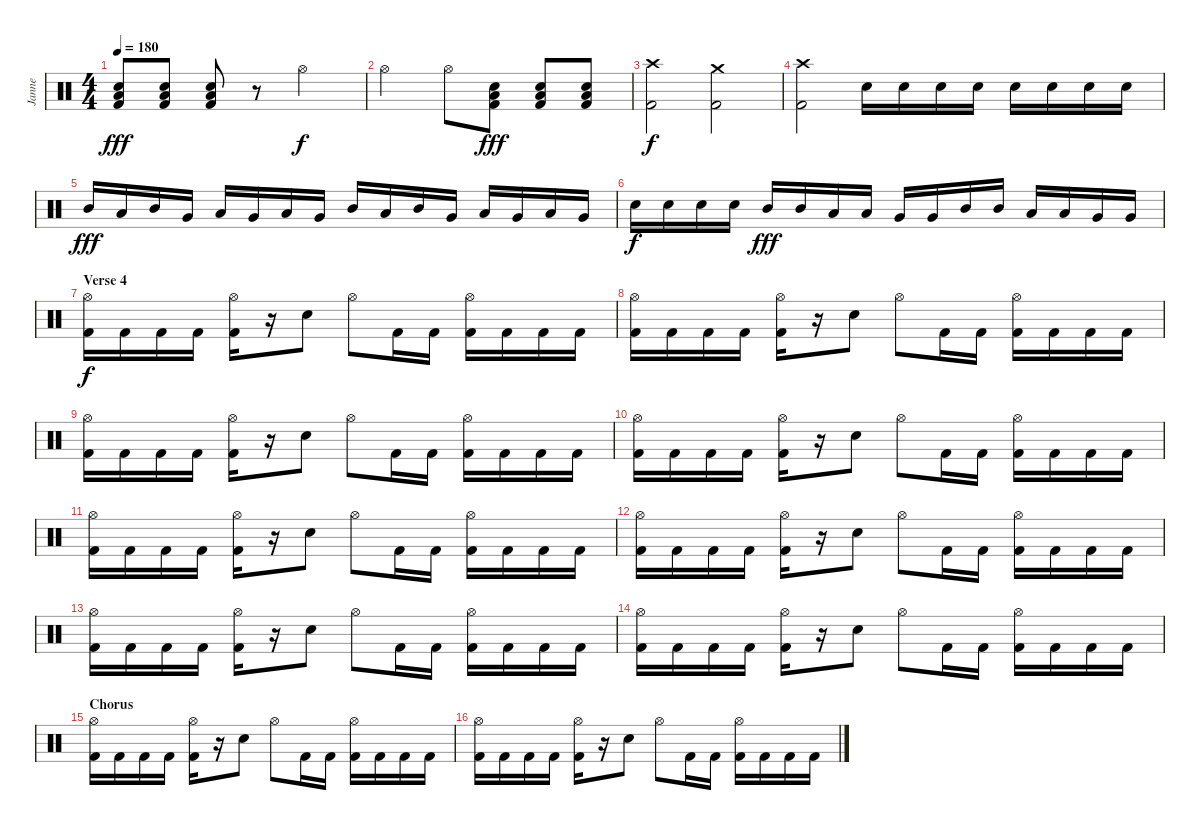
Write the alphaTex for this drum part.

\track ("Janne" "Janne") {instrument percussion}
\staff {score}
\articulation defaults
\ts (4 4)
\tempo 180
\clef neutral
\ks c
("Low Floor Tom (hit)" "Electric Snare (hit)" "Kick (hit) 2").8{dy fff} ("Low Floor Tom (hit)" "Electric Snare (hit)" "Kick (hit) 2").8 ("Low Floor Tom (hit)" "Electric Snare (hit)" "Kick (hit) 2").8 r.8 "Hi-Hat (open)".2{dy f} |
"Hi-Hat (open)".2 "Hi-Hat (open)".8 ("Low Floor Tom (hit)" "Electric Snare (hit)" "Kick (hit) 2").8{dy fff} ("Low Floor Tom (hit)" "Electric Snare (hit)" "Kick (hit) 2").8 ("Low Floor Tom (hit)" "Electric Snare (hit)" "Kick (hit) 2").8 |
("Crash high (hit)" "Kick (hit) 2").2{dy f} ("Crash medium (hit)" "Kick (hit) 2").2 |
("Crash high (hit)" "Kick (hit) 2").2 "Electric Snare (hit)".16 "Electric Snare (hit)".16 "Electric Snare (hit)".16 "Electric Snare (hit)".16 "Electric Snare (hit)".16 "Electric Snare (hit)".16 "Electric Snare (hit)".16 "Electric Snare (hit)".16 |
"Mid Tom (hit)".16{dy fff} "Low Tom (hit)".16 "Mid Tom (hit)".16 "Very Low Tom (hit)".16 "Low Tom (hit)".16 "Very Low Tom (hit)".16 "Low Tom (hit)".16 "Very Low Tom (hit)".16 "Mid Tom (hit)".16 "Low Tom (hit)".16 "Mid Tom (hit)".16 "Very Low Tom (hit)".16 "Low Tom (hit)".16 "Very Low Tom (hit)".16 "Low Tom (hit)".16 "Very Low Tom (hit)".16 |
"Electric Snare (hit)".16{dy f} "Electric Snare (hit)".16 "Electric Snare (hit)".16 "Electric Snare (hit)".16 "Mid Tom (hit)".16{dy fff} "Mid Tom (hit)".16 "Low Tom (hit)".16 "Low Tom (hit)".16 "Very Low Tom (hit)".16 "Very Low Tom (hit)".16 "Mid Tom (hit)".16 "Mid Tom (hit)".16 "Low Tom (hit)".16 "Low Tom (hit)".16 "Very Low Tom (hit)".16 "Very Low Tom (hit)".16 |
\section ("" "Verse 4")
("Hi-Hat (open)" "Kick (hit) 2").16{dy f} "Kick (hit) 2".16 "Kick (hit) 2".16 "Kick (hit) 2".16 ("Hi-Hat (open)" "Kick (hit) 2").16 r.16 "Electric Snare (hit)".8 "Hi-Hat (open)".8 "Kick (hit) 2".16 "Kick (hit) 2".16 ("Hi-Hat (open)" "Kick (hit) 2").16 "Kick (hit) 2".16 "Kick (hit) 2".16 "Kick (hit) 2".16 |
("Hi-Hat (open)" "Kick (hit) 2").16 "Kick (hit) 2".16 "Kick (hit) 2".16 "Kick (hit) 2".16 ("Hi-Hat (open)" "Kick (hit) 2").16 r.16 "Electric Snare (hit)".8 "Hi-Hat (open)".8 "Kick (hit) 2".16 "Kick (hit) 2".16 ("Hi-Hat (open)" "Kick (hit) 2").16 "Kick (hit) 2".16 "Kick (hit) 2".16 "Kick (hit) 2".16 |
("Hi-Hat (open)" "Kick (hit) 2").16 "Kick (hit) 2".16 "Kick (hit) 2".16 "Kick (hit) 2".16 ("Hi-Hat (open)" "Kick (hit) 2").16 r.16 "Electric Snare (hit)".8 "Hi-Hat (open)".8 "Kick (hit) 2".16 "Kick (hit) 2".16 ("Hi-Hat (open)" "Kick (hit) 2").16 "Kick (hit) 2".16 "Kick (hit) 2".16 "Kick (hit) 2".16 |
("Hi-Hat (open)" "Kick (hit) 2").16 "Kick (hit) 2".16 "Kick (hit) 2".16 "Kick (hit) 2".16 ("Hi-Hat (open)" "Kick (hit) 2").16 r.16 "Electric Snare (hit)".8 "Hi-Hat (open)".8 "Kick (hit) 2".16 "Kick (hit) 2".16 ("Hi-Hat (open)" "Kick (hit) 2").16 "Kick (hit) 2".16 "Kick (hit) 2".16 "Kick (hit) 2".16 |
("Hi-Hat (open)" "Kick (hit) 2").16 "Kick (hit) 2".16 "Kick (hit) 2".16 "Kick (hit) 2".16 ("Hi-Hat (open)" "Kick (hit) 2").16 r.16 "Electric Snare (hit)".8 "Hi-Hat (open)".8 "Kick (hit) 2".16 "Kick (hit) 2".16 ("Hi-Hat (open)" "Kick (hit) 2").16 "Kick (hit) 2".16 "Kick (hit) 2".16 "Kick (hit) 2".16 |
("Hi-Hat (open)" "Kick (hit) 2").16 "Kick (hit) 2".16 "Kick (hit) 2".16 "Kick (hit) 2".16 ("Hi-Hat (open)" "Kick (hit) 2").16 r.16 "Electric Snare (hit)".8 "Hi-Hat (open)".8 "Kick (hit) 2".16 "Kick (hit) 2".16 ("Hi-Hat (open)" "Kick (hit) 2").16 "Kick (hit) 2".16 "Kick (hit) 2".16 "Kick (hit) 2".16 |
("Hi-Hat (open)" "Kick (hit) 2").16 "Kick (hit) 2".16 "Kick (hit) 2".16 "Kick (hit) 2".16 ("Hi-Hat (open)" "Kick (hit) 2").16 r.16 "Electric Snare (hit)".8 "Hi-Hat (open)".8 "Kick (hit) 2".16 "Kick (hit) 2".16 ("Hi-Hat (open)" "Kick (hit) 2").16 "Kick (hit) 2".16 "Kick (hit) 2".16 "Kick (hit) 2".16 |
("Hi-Hat (open)" "Kick (hit) 2").16 "Kick (hit) 2".16 "Kick (hit) 2".16 "Kick (hit) 2".16 ("Hi-Hat (open)" "Kick (hit) 2").16 r.16 "Electric Snare (hit)".8 "Hi-Hat (open)".8 "Kick (hit) 2".16 "Kick (hit) 2".16 ("Hi-Hat (open)" "Kick (hit) 2").16 "Kick (hit) 2".16 "Kick (hit) 2".16 "Kick (hit) 2".16 |
\section ("" "Chorus")
("Hi-Hat (open)" "Kick (hit) 2").16 "Kick (hit) 2".16 "Kick (hit) 2".16 "Kick (hit) 2".16 ("Hi-Hat (open)" "Kick (hit) 2").16 r.16 "Electric Snare (hit)".8 "Hi-Hat (open)".8 "Kick (hit) 2".16 "Kick (hit) 2".16 ("Hi-Hat (open)" "Kick (hit) 2").16 "Kick (hit) 2".16 "Kick (hit) 2".16 "Kick (hit) 2".16 |
("Hi-Hat (open)" "Kick (hit) 2").16 "Kick (hit) 2".16 "Kick (hit) 2".16 "Kick (hit) 2".16 ("Hi-Hat (open)" "Kick (hit) 2").16 r.16 "Electric Snare (hit)".8 "Hi-Hat (open)".8 "Kick (hit) 2".16 "Kick (hit) 2".16 ("Hi-Hat (open)" "Kick (hit) 2").16 "Kick (hit) 2".16 "Kick (hit) 2".16 "Kick (hit) 2".16
